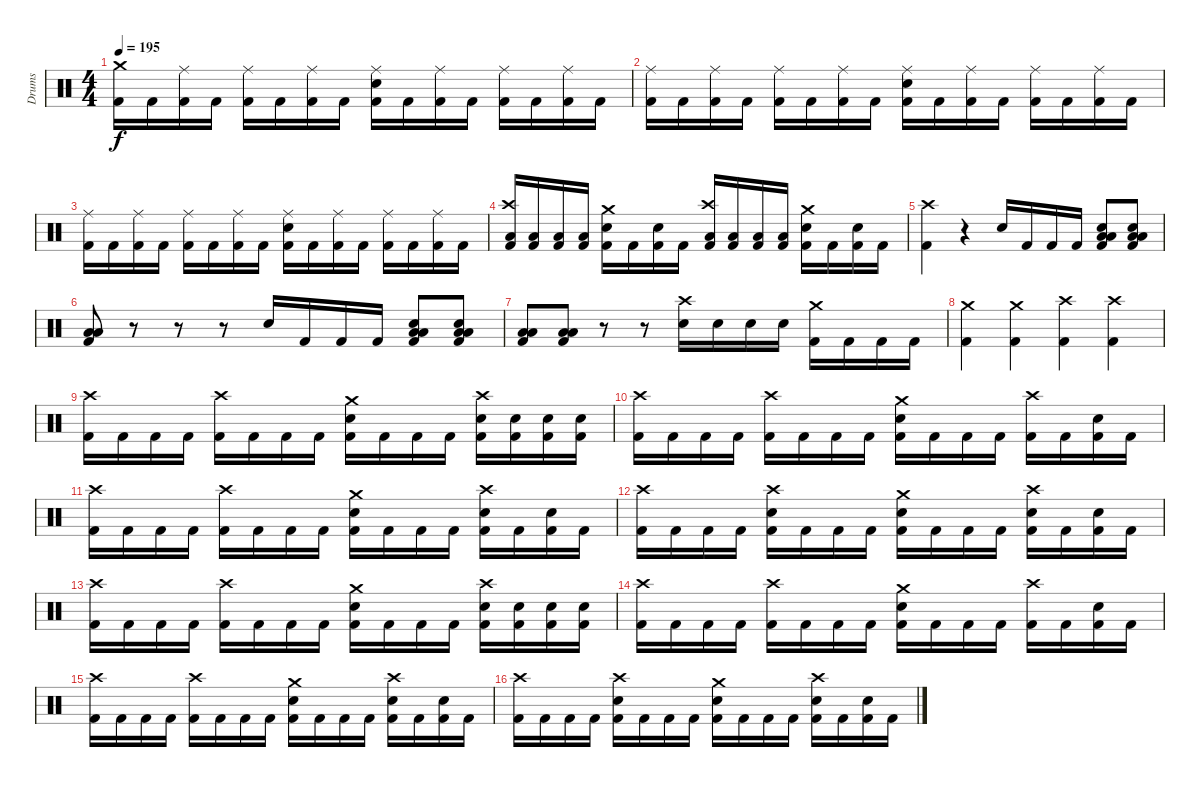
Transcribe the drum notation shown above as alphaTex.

\track ("Drums" "Drums") {instrument percussion}
\staff {score}
\articulation defaults
\ts (4 4)
\tempo 195
\clef neutral
\ks c
("Crash medium (hit)" "Kick (hit) 2").16{dy f} "Kick (hit) 2".16 ("Ride (middle)" "Kick (hit) 2").16 "Kick (hit) 2".16 ("Ride (middle)" "Kick (hit) 2").16 "Kick (hit) 2".16 ("Ride (middle)" "Kick (hit) 2").16 "Kick (hit) 2".16 ("Ride (middle)" "Kick (hit) 2" "Electric Snare (hit)").16 "Kick (hit) 2".16 ("Ride (middle)" "Kick (hit) 2").16 "Kick (hit) 2".16 ("Ride (middle)" "Kick (hit) 2").16 "Kick (hit) 2".16 ("Ride (middle)" "Kick (hit) 2").16 "Kick (hit) 2".16 |
("Ride (middle)" "Kick (hit) 2").16 "Kick (hit) 2".16 ("Ride (middle)" "Kick (hit) 2").16 "Kick (hit) 2".16 ("Ride (middle)" "Kick (hit) 2").16 "Kick (hit) 2".16 ("Ride (middle)" "Kick (hit) 2").16 "Kick (hit) 2".16 ("Ride (middle)" "Kick (hit) 2" "Electric Snare (hit)").16 "Kick (hit) 2".16 ("Ride (middle)" "Kick (hit) 2").16 "Kick (hit) 2".16 ("Ride (middle)" "Kick (hit) 2").16 "Kick (hit) 2".16 ("Ride (middle)" "Kick (hit) 2").16 "Kick (hit) 2".16 |
("Ride (middle)" "Kick (hit) 2").16 "Kick (hit) 2".16 ("Ride (middle)" "Kick (hit) 2").16 "Kick (hit) 2".16 ("Ride (middle)" "Kick (hit) 2").16 "Kick (hit) 2".16 ("Ride (middle)" "Kick (hit) 2").16 "Kick (hit) 2".16 ("Ride (middle)" "Kick (hit) 2" "Electric Snare (hit)").16 "Kick (hit) 2".16 ("Ride (middle)" "Kick (hit) 2").16 "Kick (hit) 2".16 ("Ride (middle)" "Kick (hit) 2").16 "Kick (hit) 2".16 ("Ride (middle)" "Kick (hit) 2").16 "Kick (hit) 2".16 |
("Crash high (hit)" "Kick (hit) 2" "Low Tom (hit)").16 ("Kick (hit) 2" "Low Tom (hit)").16 ("Kick (hit) 2" "Low Tom (hit)").16 ("Kick (hit) 2" "Low Tom (hit)").16 ("Crash medium (hit)" "Kick (hit) 2" "Electric Snare (hit)").16 "Kick (hit) 2".16 ("Kick (hit) 2" "Electric Snare (hit)").16 "Kick (hit) 2".16 ("Crash high (hit)" "Kick (hit) 2" "Low Floor Tom (hit)").16 ("Kick (hit) 2" "Low Floor Tom (hit)").16 ("Kick (hit) 2" "Low Floor Tom (hit)").16 ("Kick (hit) 2" "Low Floor Tom (hit)").16 ("Crash medium (hit)" "Kick (hit) 2" "Electric Snare (hit)").16 "Kick (hit) 2".16 ("Kick (hit) 2" "Electric Snare (hit)").16 "Kick (hit) 2".16 |
("Crash high (hit)" "Kick (hit) 2").4 r.4 "Electric Snare (hit)".16 "Kick (hit) 2".16 "Kick (hit) 2".16 "Kick (hit) 2".16 ("Kick (hit) 2" "Low Floor Tom (hit)" "Low Tom (hit)" "Electric Snare (hit)").8 ("Kick (hit) 2" "Low Floor Tom (hit)" "Low Tom (hit)" "Electric Snare (hit)").8 |
("Kick (hit) 2" "Low Floor Tom (hit)" "Low Tom (hit)").8 r.8 r.8 r.8 "Electric Snare (hit)".16 "Kick (hit) 2".16 "Kick (hit) 2".16 "Kick (hit) 2".16 ("Kick (hit) 2" "Low Floor Tom (hit)" "Low Tom (hit)" "Electric Snare (hit)").8 ("Kick (hit) 2" "Low Floor Tom (hit)" "Low Tom (hit)" "Electric Snare (hit)").8 |
("Kick (hit) 2" "Low Floor Tom (hit)" "Low Tom (hit)").8 ("Kick (hit) 2" "Low Floor Tom (hit)" "Low Tom (hit)").8 r.8 r.8 ("Crash high (hit)" "Electric Snare (hit)").16 "Electric Snare (hit)".16 "Electric Snare (hit)".16 "Electric Snare (hit)".16 ("Crash medium (hit)" "Kick (hit) 2").16 "Kick (hit) 2".16 "Kick (hit) 2".16 "Kick (hit) 2".16 |
("Crash medium (hit)" "Kick (hit) 2").4 ("Crash medium (hit)" "Kick (hit) 2").4 ("Crash high (hit)" "Kick (hit) 2").4 ("Crash high (hit)" "Kick (hit) 2").4 |
("Crash high (hit)" "Kick (hit) 2").16 "Kick (hit) 2".16 "Kick (hit) 2".16 "Kick (hit) 2".16 ("Crash high (hit)" "Kick (hit) 2").16 "Kick (hit) 2".16 "Kick (hit) 2".16 "Kick (hit) 2".16 ("Crash medium (hit)" "Kick (hit) 2" "Electric Snare (hit)").16 "Kick (hit) 2".16 "Kick (hit) 2".16 "Kick (hit) 2".16 ("Crash high (hit)" "Kick (hit) 2" "Electric Snare (hit)").16 ("Kick (hit) 2" "Electric Snare (hit)").16 ("Kick (hit) 2" "Electric Snare (hit)").16 ("Kick (hit) 2" "Electric Snare (hit)").16 |
("Crash high (hit)" "Kick (hit) 2").16 "Kick (hit) 2".16 "Kick (hit) 2".16 "Kick (hit) 2".16 ("Crash high (hit)" "Kick (hit) 2").16 "Kick (hit) 2".16 "Kick (hit) 2".16 "Kick (hit) 2".16 ("Crash medium (hit)" "Kick (hit) 2" "Electric Snare (hit)").16 "Kick (hit) 2".16 "Kick (hit) 2".16 "Kick (hit) 2".16 ("Crash high (hit)" "Kick (hit) 2").16 "Kick (hit) 2".16 ("Kick (hit) 2" "Electric Snare (hit)").16 "Kick (hit) 2".16 |
("Crash high (hit)" "Kick (hit) 2").16 "Kick (hit) 2".16 "Kick (hit) 2".16 "Kick (hit) 2".16 ("Crash high (hit)" "Kick (hit) 2").16 "Kick (hit) 2".16 "Kick (hit) 2".16 "Kick (hit) 2".16 ("Crash medium (hit)" "Kick (hit) 2" "Electric Snare (hit)").16 "Kick (hit) 2".16 "Kick (hit) 2".16 "Kick (hit) 2".16 ("Crash high (hit)" "Kick (hit) 2" "Electric Snare (hit)").16 "Kick (hit) 2".16 ("Kick (hit) 2" "Electric Snare (hit)").16 "Kick (hit) 2".16 |
("Crash high (hit)" "Kick (hit) 2").16 "Kick (hit) 2".16 "Kick (hit) 2".16 "Kick (hit) 2".16 ("Crash high (hit)" "Kick (hit) 2" "Electric Snare (hit)").16 "Kick (hit) 2".16 "Kick (hit) 2".16 "Kick (hit) 2".16 ("Crash medium (hit)" "Kick (hit) 2" "Electric Snare (hit)").16 "Kick (hit) 2".16 "Kick (hit) 2".16 "Kick (hit) 2".16 ("Crash high (hit)" "Kick (hit) 2" "Electric Snare (hit)").16 "Kick (hit) 2".16 ("Kick (hit) 2" "Electric Snare (hit)").16 "Kick (hit) 2".16 |
("Crash high (hit)" "Kick (hit) 2").16 "Kick (hit) 2".16 "Kick (hit) 2".16 "Kick (hit) 2".16 ("Crash high (hit)" "Kick (hit) 2").16 "Kick (hit) 2".16 "Kick (hit) 2".16 "Kick (hit) 2".16 ("Crash medium (hit)" "Kick (hit) 2" "Electric Snare (hit)").16 "Kick (hit) 2".16 "Kick (hit) 2".16 "Kick (hit) 2".16 ("Crash high (hit)" "Kick (hit) 2" "Electric Snare (hit)").16 ("Kick (hit) 2" "Electric Snare (hit)").16 ("Kick (hit) 2" "Electric Snare (hit)").16 ("Kick (hit) 2" "Electric Snare (hit)").16 |
("Crash high (hit)" "Kick (hit) 2").16 "Kick (hit) 2".16 "Kick (hit) 2".16 "Kick (hit) 2".16 ("Crash high (hit)" "Kick (hit) 2").16 "Kick (hit) 2".16 "Kick (hit) 2".16 "Kick (hit) 2".16 ("Crash medium (hit)" "Kick (hit) 2" "Electric Snare (hit)").16 "Kick (hit) 2".16 "Kick (hit) 2".16 "Kick (hit) 2".16 ("Crash high (hit)" "Kick (hit) 2").16 "Kick (hit) 2".16 ("Kick (hit) 2" "Electric Snare (hit)").16 "Kick (hit) 2".16 |
("Crash high (hit)" "Kick (hit) 2").16 "Kick (hit) 2".16 "Kick (hit) 2".16 "Kick (hit) 2".16 ("Crash high (hit)" "Kick (hit) 2").16 "Kick (hit) 2".16 "Kick (hit) 2".16 "Kick (hit) 2".16 ("Crash medium (hit)" "Kick (hit) 2" "Electric Snare (hit)").16 "Kick (hit) 2".16 "Kick (hit) 2".16 "Kick (hit) 2".16 ("Crash high (hit)" "Kick (hit) 2" "Electric Snare (hit)").16 "Kick (hit) 2".16 ("Kick (hit) 2" "Electric Snare (hit)").16 "Kick (hit) 2".16 |
("Crash high (hit)" "Kick (hit) 2").16 "Kick (hit) 2".16 "Kick (hit) 2".16 "Kick (hit) 2".16 ("Crash high (hit)" "Kick (hit) 2" "Electric Snare (hit)").16 "Kick (hit) 2".16 "Kick (hit) 2".16 "Kick (hit) 2".16 ("Crash medium (hit)" "Kick (hit) 2" "Electric Snare (hit)").16 "Kick (hit) 2".16 "Kick (hit) 2".16 "Kick (hit) 2".16 ("Crash high (hit)" "Kick (hit) 2" "Electric Snare (hit)").16 "Kick (hit) 2".16 ("Kick (hit) 2" "Electric Snare (hit)").16 "Kick (hit) 2".16
